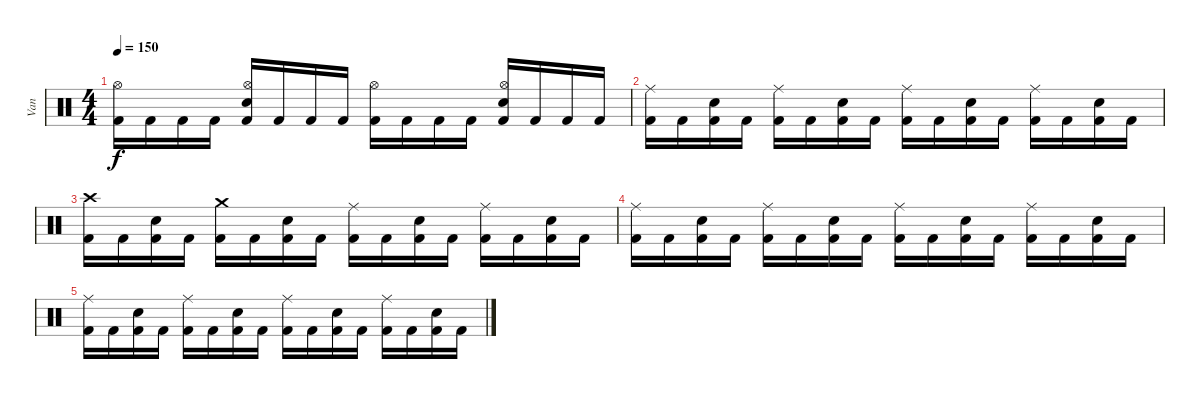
\track ("Van" "Van") {instrument percussion}
\staff {score}
\articulation defaults
\ts (4 4)
\tempo 150
\clef neutral
\ks c
("Kick (hit) 2" "Hi-Hat (open)").16{dy f} "Kick (hit) 2".16 "Kick (hit) 2".16 "Kick (hit) 2".16 ("Kick (hit) 2" "Hi-Hat (open)" "Electric Snare (hit)").16 "Kick (hit) 2".16 "Kick (hit) 2".16 "Kick (hit) 2".16 ("Kick (hit) 2" "Hi-Hat (open)").16 "Kick (hit) 2".16 "Kick (hit) 2".16 "Kick (hit) 2".16 ("Kick (hit) 2" "Hi-Hat (open)" "Electric Snare (hit)").16 "Kick (hit) 2".16 "Kick (hit) 2".16 "Kick (hit) 2".16 |
("Kick (hit) 2" "Ride (middle)").16 "Kick (hit) 2".16 ("Kick (hit) 2" "Electric Snare (hit)").16 "Kick (hit) 2".16 ("Kick (hit) 2" "Ride (middle)").16 "Kick (hit) 2".16 ("Kick (hit) 2" "Electric Snare (hit)").16 "Kick (hit) 2".16 ("Kick (hit) 2" "Ride (middle)").16 "Kick (hit) 2".16 ("Kick (hit) 2" "Electric Snare (hit)").16 "Kick (hit) 2".16 ("Kick (hit) 2" "Ride (middle)").16 "Kick (hit) 2".16 ("Kick (hit) 2" "Electric Snare (hit)").16 "Kick (hit) 2".16 |
("Kick (hit) 2" "Crash high (hit)").16 "Kick (hit) 2".16 ("Kick (hit) 2" "Electric Snare (hit)").16 "Kick (hit) 2".16 ("Kick (hit) 2" "Crash medium (hit)").16 "Kick (hit) 2".16 ("Kick (hit) 2" "Electric Snare (hit)").16 "Kick (hit) 2".16 ("Kick (hit) 2" "Ride (middle)").16 "Kick (hit) 2".16 ("Kick (hit) 2" "Electric Snare (hit)").16 "Kick (hit) 2".16 ("Kick (hit) 2" "Ride (middle)").16 "Kick (hit) 2".16 ("Kick (hit) 2" "Electric Snare (hit)").16 "Kick (hit) 2".16 |
("Kick (hit) 2" "Ride (middle)").16 "Kick (hit) 2".16 ("Kick (hit) 2" "Electric Snare (hit)").16 "Kick (hit) 2".16 ("Kick (hit) 2" "Ride (middle)").16 "Kick (hit) 2".16 ("Kick (hit) 2" "Electric Snare (hit)").16 "Kick (hit) 2".16 ("Kick (hit) 2" "Ride (middle)").16 "Kick (hit) 2".16 ("Kick (hit) 2" "Electric Snare (hit)").16 "Kick (hit) 2".16 ("Kick (hit) 2" "Ride (middle)").16 "Kick (hit) 2".16 ("Kick (hit) 2" "Electric Snare (hit)").16 "Kick (hit) 2".16 |
("Kick (hit) 2" "Ride (middle)").16 "Kick (hit) 2".16 ("Kick (hit) 2" "Electric Snare (hit)").16 "Kick (hit) 2".16 ("Kick (hit) 2" "Ride (middle)").16 "Kick (hit) 2".16 ("Kick (hit) 2" "Electric Snare (hit)").16 "Kick (hit) 2".16 ("Kick (hit) 2" "Ride (middle)").16 "Kick (hit) 2".16 ("Kick (hit) 2" "Electric Snare (hit)").16 "Kick (hit) 2".16 ("Kick (hit) 2" "Ride (middle)").16 "Kick (hit) 2".16 ("Kick (hit) 2" "Electric Snare (hit)").16 "Kick (hit) 2".16
